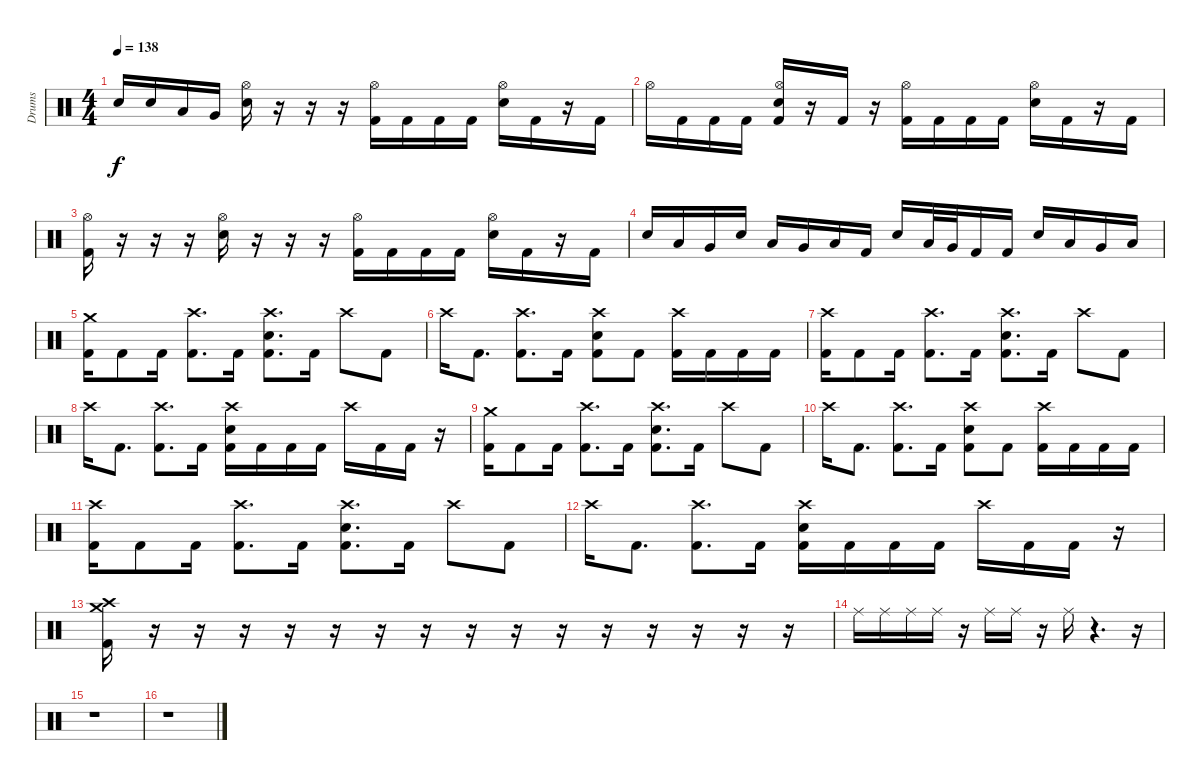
\track ("Drums" "Drums") {instrument percussion}
\staff {score}
\articulation defaults
\ts (4 4)
\tempo 138
\clef neutral
\ks c "Electric Snare (hit)".16{dy f} "Electric Snare (hit)".16 "Low Tom (hit)".16 "Very Low Tom (hit)".16
("Hi-Hat (open)" "Electric Snare (hit)").16 r.16 r.16 r.16 ("Hi-Hat (open)" "Kick (hit) 2").16 "Kick (hit) 2".16 "Kick (hit) 2".16 "Kick (hit) 2".16 ("Hi-Hat (open)" "Electric Snare (hit)").16 "Kick (hit) 2".16 r.16 "Kick (hit) 2".16 |
"Hi-Hat (open)".16 "Kick (hit) 2".16 "Kick (hit) 2".16 "Kick (hit) 2".16 ("Hi-Hat (open)" "Electric Snare (hit)" "Kick (hit) 2").16 r.16 "Kick (hit) 2".16 r.16 ("Hi-Hat (open)" "Kick (hit) 2").16 "Kick (hit) 2".16 "Kick (hit) 2".16 "Kick (hit) 2".16 ("Hi-Hat (open)" "Electric Snare (hit)").16 "Kick (hit) 2".16 r.16 "Kick (hit) 2".16 |
("Hi-Hat (open)" "Kick (hit) 2").16 r.16 r.16 r.16 ("Hi-Hat (open)" "Electric Snare (hit)").16 r.16 r.16 r.16 ("Hi-Hat (open)" "Kick (hit) 2").16 "Kick (hit) 2".16 "Kick (hit) 2".16 "Kick (hit) 2".16 ("Hi-Hat (open)" "Electric Snare (hit)").16 "Kick (hit) 2".16 r.16 "Kick (hit) 2".16 |
"Electric Snare (hit)".16 "Low Tom (hit)".16 "Very Low Tom (hit)".16 "Electric Snare (hit)".16 "Low Tom (hit)".16 "Very Low Tom (hit)".16 "Low Floor Tom (hit)".16 "Kick (hit) 2".16 "Electric Snare (hit)".16 "Low Tom (hit)".32 "Very Low Tom (hit)".32 "Kick (hit) 2".16 "Kick (hit) 2".16 "Electric Snare (hit)".16 "Low Tom (hit)".16 "Very Low Tom (hit)".16 "Low Floor Tom (hit)".16 |
("Crash medium (hit)" "Kick (hit) 2").16 "Kick (hit) 2".8 "Kick (hit) 2".16 ("Crash high (hit)" "Kick (hit) 2").8{d} "Kick (hit) 2".16 ("Crash high (hit)" "Electric Snare (hit)" "Kick (hit) 2").8{d} "Kick (hit) 2".16 "Crash high (hit)".8 "Kick (hit) 2".8 |
"Crash high (hit)".16 "Kick (hit) 2".8{d} ("Crash high (hit)" "Kick (hit) 2").8{d} "Kick (hit) 2".16 ("Crash high (hit)" "Electric Snare (hit)" "Kick (hit) 2").8 "Kick (hit) 2".8 ("Crash high (hit)" "Kick (hit) 2").16 "Kick (hit) 2".16 "Kick (hit) 2".16 "Kick (hit) 2".16 |
("Crash high (hit)" "Kick (hit) 2").16 "Kick (hit) 2".8 "Kick (hit) 2".16 ("Crash high (hit)" "Kick (hit) 2").8{d} "Kick (hit) 2".16 ("Crash high (hit)" "Electric Snare (hit)" "Kick (hit) 2").8{d} "Kick (hit) 2".16 "Crash high (hit)".8 "Kick (hit) 2".8 |
"Crash high (hit)".16 "Kick (hit) 2".8{d} ("Crash high (hit)" "Kick (hit) 2").8{d} "Kick (hit) 2".16 ("Crash high (hit)" "Electric Snare (hit)" "Kick (hit) 2").16 "Kick (hit) 2".16 "Kick (hit) 2".16 "Kick (hit) 2".16 "Crash high (hit)".16 "Kick (hit) 2".16 "Kick (hit) 2".16 r.16 |
("Crash medium (hit)" "Kick (hit) 2").16 "Kick (hit) 2".8 "Kick (hit) 2".16 ("Crash high (hit)" "Kick (hit) 2").8{d} "Kick (hit) 2".16 ("Crash high (hit)" "Electric Snare (hit)" "Kick (hit) 2").8{d} "Kick (hit) 2".16 "Crash high (hit)".8 "Kick (hit) 2".8 |
"Crash high (hit)".16 "Kick (hit) 2".8{d} ("Crash high (hit)" "Kick (hit) 2").8{d} "Kick (hit) 2".16 ("Crash high (hit)" "Electric Snare (hit)" "Kick (hit) 2").8 "Kick (hit) 2".8 ("Crash high (hit)" "Kick (hit) 2").16 "Kick (hit) 2".16 "Kick (hit) 2".16 "Kick (hit) 2".16 |
("Crash high (hit)" "Kick (hit) 2").16 "Kick (hit) 2".8 "Kick (hit) 2".16 ("Crash high (hit)" "Kick (hit) 2").8{d} "Kick (hit) 2".16 ("Crash high (hit)" "Electric Snare (hit)" "Kick (hit) 2").8{d} "Kick (hit) 2".16 "Crash high (hit)".8 "Kick (hit) 2".8 |
"Crash high (hit)".16 "Kick (hit) 2".8{d} ("Crash high (hit)" "Kick (hit) 2").8{d} "Kick (hit) 2".16 ("Crash high (hit)" "Electric Snare (hit)" "Kick (hit) 2").16 "Kick (hit) 2".16 "Kick (hit) 2".16 "Kick (hit) 2".16 "Crash high (hit)".16 "Kick (hit) 2".16 "Kick (hit) 2".16 r.16 |
("Crash medium (hit)" "Crash high (hit)" "Kick (hit) 2").16 r.16 r.16 r.16 r.16 r.16 r.16 r.16 r.16 r.16 r.16 r.16 r.16 r.16 r.16 r.16 |
"Ride (middle)".16 "Ride (middle)".16 "Ride (middle)".16 "Ride (middle)".16 r.16 "Ride (middle)".16 "Ride (middle)".16 r.16 "Ride (middle)".16 r.4{d} r.16 |
r.1 |
r.1
